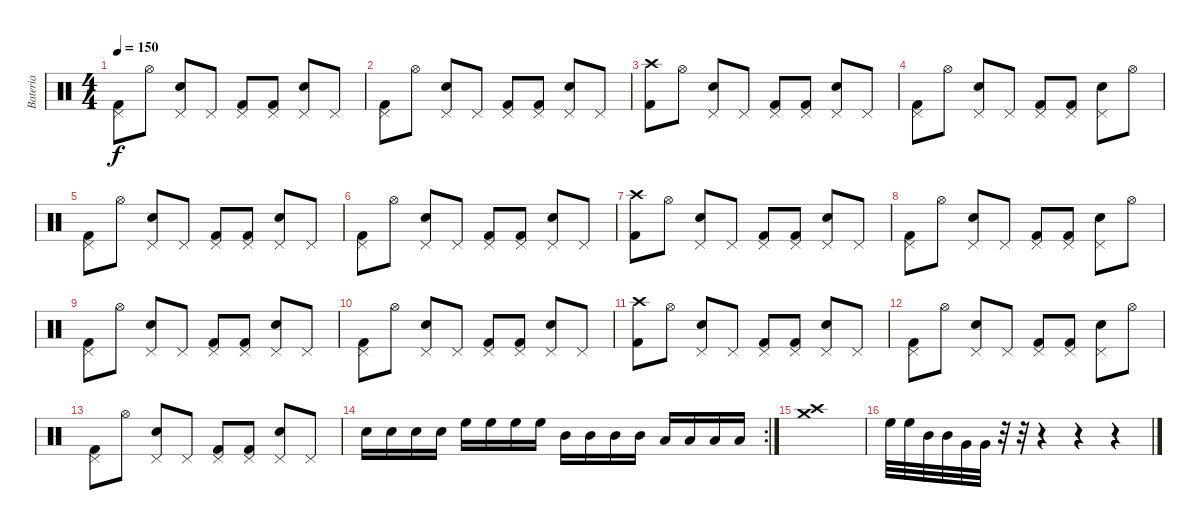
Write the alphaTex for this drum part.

\track ("Bateria" "Bateria") {instrument percussion}
\staff {score}
\articulation defaults
\ts (4 4)
\tempo 150
\clef neutral
\ks c
("Pedal Hi-Hat (hit)" "Kick (hit) 2").8{dy f} "Hi-Hat (open)".8 ("Pedal Hi-Hat (hit)" "Snare (hit) 2").8 "Pedal Hi-Hat (hit)".8 ("Pedal Hi-Hat (hit)" "Kick (hit) 2").8 ("Pedal Hi-Hat (hit)" "Kick (hit) 2").8 ("Pedal Hi-Hat (hit)" "Snare (hit) 2").8 "Pedal Hi-Hat (hit)".8 |
("Pedal Hi-Hat (hit)" "Kick (hit) 2").8 "Hi-Hat (open)".8 ("Pedal Hi-Hat (hit)" "Snare (hit) 2").8 "Pedal Hi-Hat (hit)".8 ("Pedal Hi-Hat (hit)" "Kick (hit) 2").8 ("Pedal Hi-Hat (hit)" "Kick (hit) 2").8 ("Pedal Hi-Hat (hit)" "Snare (hit) 2").8 "Pedal Hi-Hat (hit)".8 |
("Crash high (hit)" "Kick (hit) 2").8 "Hi-Hat (open)".8 ("Pedal Hi-Hat (hit)" "Snare (hit) 2").8 "Pedal Hi-Hat (hit)".8 ("Pedal Hi-Hat (hit)" "Kick (hit) 2").8 ("Pedal Hi-Hat (hit)" "Kick (hit) 2").8 ("Pedal Hi-Hat (hit)" "Snare (hit) 2").8 "Pedal Hi-Hat (hit)".8 |
("Pedal Hi-Hat (hit)" "Kick (hit) 2").8 "Hi-Hat (open)".8 ("Pedal Hi-Hat (hit)" "Snare (hit) 2").8 "Pedal Hi-Hat (hit)".8 ("Pedal Hi-Hat (hit)" "Kick (hit) 2").8 ("Pedal Hi-Hat (hit)" "Kick (hit) 2").8 ("Pedal Hi-Hat (hit)" "Snare (hit) 2").8 "Hi-Hat (open)".8 |
("Pedal Hi-Hat (hit)" "Kick (hit) 2").8 "Hi-Hat (open)".8 ("Pedal Hi-Hat (hit)" "Snare (hit) 2").8 "Pedal Hi-Hat (hit)".8 ("Pedal Hi-Hat (hit)" "Kick (hit) 2").8 ("Pedal Hi-Hat (hit)" "Kick (hit) 2").8 ("Pedal Hi-Hat (hit)" "Snare (hit) 2").8 "Pedal Hi-Hat (hit)".8 |
("Pedal Hi-Hat (hit)" "Kick (hit) 2").8 "Hi-Hat (open)".8 ("Pedal Hi-Hat (hit)" "Snare (hit) 2").8 "Pedal Hi-Hat (hit)".8 ("Pedal Hi-Hat (hit)" "Kick (hit) 2").8 ("Pedal Hi-Hat (hit)" "Kick (hit) 2").8 ("Pedal Hi-Hat (hit)" "Snare (hit) 2").8 "Pedal Hi-Hat (hit)".8 |
("Crash high (hit)" "Kick (hit) 2").8 "Hi-Hat (open)".8 ("Pedal Hi-Hat (hit)" "Snare (hit) 2").8 "Pedal Hi-Hat (hit)".8 ("Pedal Hi-Hat (hit)" "Kick (hit) 2").8 ("Pedal Hi-Hat (hit)" "Kick (hit) 2").8 ("Pedal Hi-Hat (hit)" "Snare (hit) 2").8 "Pedal Hi-Hat (hit)".8 |
("Pedal Hi-Hat (hit)" "Kick (hit) 2").8 "Hi-Hat (open)".8 ("Pedal Hi-Hat (hit)" "Snare (hit) 2").8 "Pedal Hi-Hat (hit)".8 ("Pedal Hi-Hat (hit)" "Kick (hit) 2").8 ("Pedal Hi-Hat (hit)" "Kick (hit) 2").8 ("Pedal Hi-Hat (hit)" "Snare (hit) 2").8 "Hi-Hat (open)".8 |
("Pedal Hi-Hat (hit)" "Kick (hit) 2").8 "Hi-Hat (open)".8 ("Pedal Hi-Hat (hit)" "Snare (hit) 2").8 "Pedal Hi-Hat (hit)".8 ("Pedal Hi-Hat (hit)" "Kick (hit) 2").8 ("Pedal Hi-Hat (hit)" "Kick (hit) 2").8 ("Pedal Hi-Hat (hit)" "Snare (hit) 2").8 "Pedal Hi-Hat (hit)".8 |
("Pedal Hi-Hat (hit)" "Kick (hit) 2").8 "Hi-Hat (open)".8 ("Pedal Hi-Hat (hit)" "Snare (hit) 2").8 "Pedal Hi-Hat (hit)".8 ("Pedal Hi-Hat (hit)" "Kick (hit) 2").8 ("Pedal Hi-Hat (hit)" "Kick (hit) 2").8 ("Pedal Hi-Hat (hit)" "Snare (hit) 2").8 "Pedal Hi-Hat (hit)".8 |
("Crash high (hit)" "Kick (hit) 2").8 "Hi-Hat (open)".8 ("Pedal Hi-Hat (hit)" "Snare (hit) 2").8 "Pedal Hi-Hat (hit)".8 ("Pedal Hi-Hat (hit)" "Kick (hit) 2").8 ("Pedal Hi-Hat (hit)" "Kick (hit) 2").8 ("Pedal Hi-Hat (hit)" "Snare (hit) 2").8 "Pedal Hi-Hat (hit)".8 |
("Pedal Hi-Hat (hit)" "Kick (hit) 2").8 "Hi-Hat (open)".8 ("Pedal Hi-Hat (hit)" "Snare (hit) 2").8 "Pedal Hi-Hat (hit)".8 ("Pedal Hi-Hat (hit)" "Kick (hit) 2").8 ("Pedal Hi-Hat (hit)" "Kick (hit) 2").8 ("Pedal Hi-Hat (hit)" "Snare (hit) 2").8 "Hi-Hat (open)".8 |
("Pedal Hi-Hat (hit)" "Kick (hit) 2").8 "Hi-Hat (open)".8 ("Pedal Hi-Hat (hit)" "Snare (hit) 2").8 "Pedal Hi-Hat (hit)".8 ("Pedal Hi-Hat (hit)" "Kick (hit) 2").8 ("Pedal Hi-Hat (hit)" "Kick (hit) 2").8 ("Pedal Hi-Hat (hit)" "Snare (hit) 2").8 "Pedal Hi-Hat (hit)".8 |
\rc 2 "Snare (hit) 2".16 "Snare (hit) 2".16 "Snare (hit) 2".16 "Snare (hit) 2".16 "High Floor Tom (hit)".16 "High Floor Tom (hit)".16 "High Floor Tom (hit)".16 "High Floor Tom (hit)".16 "Mid Tom (hit)".16 "Mid Tom (hit)".16 "Mid Tom (hit)".16 "Mid Tom (hit)".16 "Low Tom (hit)".16 "Low Tom (hit)".16 "Low Tom (hit)".16 "Low Tom (hit)".16
|
("Crash high (hit)" "Crash medium (hit)").1 |
"High Floor Tom (hit)".32 "High Floor Tom (hit)".32 "Mid Tom (hit)".32 "Mid Tom (hit)".32 "Very Low Tom (hit)".32 "Very Low Tom (hit)".32 r.32 r.32 r.4 r.4 r.4
